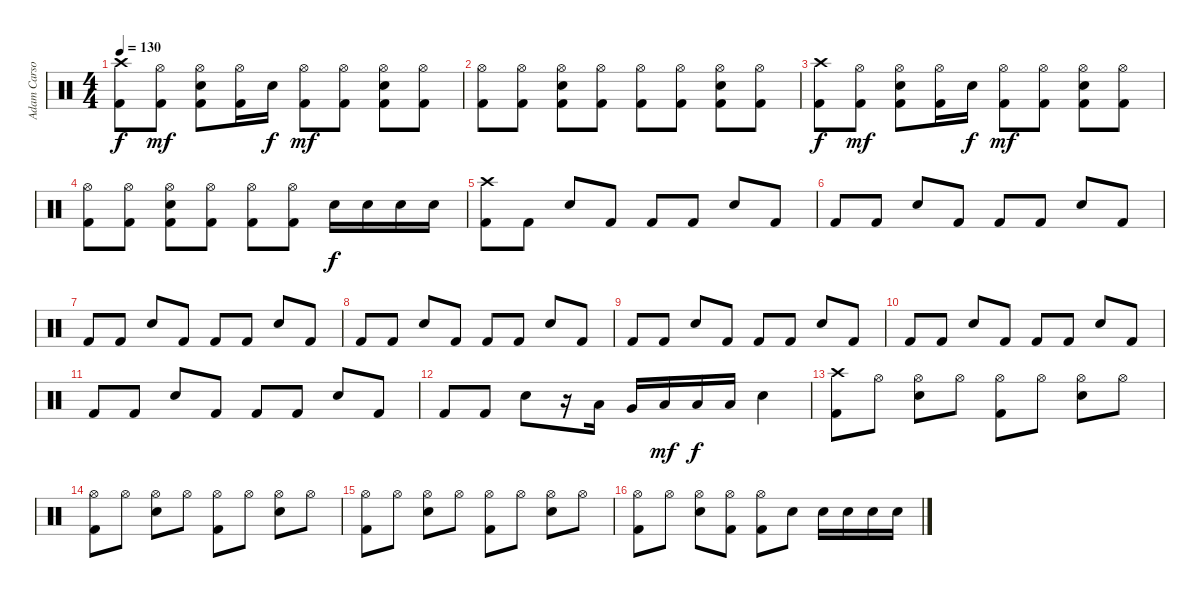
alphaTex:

\track ("Adam Carson" "Adam Carso") {instrument percussion}
\staff {score}
\articulation defaults
\ts (4 4)
\tempo 130
\clef neutral
\ks c
("Crash high (hit)" "Kick (hit) 2").8{dy f} ("Hi-Hat (open)" "Kick (hit) 2").8{dy mf} ("Hi-Hat (open)" "Electric Snare (hit)" "Kick (hit) 2").8 ("Hi-Hat (open)" "Kick (hit) 2").16 "Electric Snare (hit)".16{dy f} ("Hi-Hat (open)" "Kick (hit) 2").8{dy mf} ("Hi-Hat (open)" "Kick (hit) 2").8 ("Hi-Hat (open)" "Electric Snare (hit)" "Kick (hit) 2").8 ("Hi-Hat (open)" "Kick (hit) 2").8 |
("Hi-Hat (open)" "Kick (hit) 2").8 ("Hi-Hat (open)" "Kick (hit) 2").8 ("Hi-Hat (open)" "Electric Snare (hit)" "Kick (hit) 2").8 ("Hi-Hat (open)" "Kick (hit) 2").8 ("Hi-Hat (open)" "Kick (hit) 2").8 ("Hi-Hat (open)" "Kick (hit) 2").8 ("Hi-Hat (open)" "Electric Snare (hit)" "Kick (hit) 2").8 ("Hi-Hat (open)" "Kick (hit) 2").8 |
("Crash high (hit)" "Kick (hit) 2").8{dy f} ("Hi-Hat (open)" "Kick (hit) 2").8{dy mf} ("Hi-Hat (open)" "Electric Snare (hit)" "Kick (hit) 2").8 ("Hi-Hat (open)" "Kick (hit) 2").16 "Electric Snare (hit)".16{dy f} ("Hi-Hat (open)" "Kick (hit) 2").8{dy mf} ("Hi-Hat (open)" "Kick (hit) 2").8 ("Hi-Hat (open)" "Electric Snare (hit)" "Kick (hit) 2").8 ("Hi-Hat (open)" "Kick (hit) 2").8 |
("Hi-Hat (open)" "Kick (hit) 2").8 ("Hi-Hat (open)" "Kick (hit) 2").8 ("Hi-Hat (open)" "Electric Snare (hit)" "Kick (hit) 2").8 ("Hi-Hat (open)" "Kick (hit) 2").8 ("Hi-Hat (open)" "Kick (hit) 2").8 ("Hi-Hat (open)" "Kick (hit) 2").8 "Electric Snare (hit)".16{dy f} "Electric Snare (hit)".16 "Electric Snare (hit)".16 "Electric Snare (hit)".16 |
("Crash high (hit)" "Kick (hit) 2").8 "Kick (hit) 2".8 "Electric Snare (hit)".8 "Kick (hit) 2".8 "Kick (hit) 2".8 "Kick (hit) 2".8 "Electric Snare (hit)".8 "Kick (hit) 2".8 |
"Kick (hit) 2".8 "Kick (hit) 2".8 "Electric Snare (hit)".8 "Kick (hit) 2".8 "Kick (hit) 2".8 "Kick (hit) 2".8 "Electric Snare (hit)".8 "Kick (hit) 2".8 |
"Kick (hit) 2".8 "Kick (hit) 2".8 "Electric Snare (hit)".8 "Kick (hit) 2".8 "Kick (hit) 2".8 "Kick (hit) 2".8 "Electric Snare (hit)".8 "Kick (hit) 2".8 |
"Kick (hit) 2".8 "Kick (hit) 2".8 "Electric Snare (hit)".8 "Kick (hit) 2".8 "Kick (hit) 2".8 "Kick (hit) 2".8 "Electric Snare (hit)".8 "Kick (hit) 2".8 |
"Kick (hit) 2".8 "Kick (hit) 2".8 "Electric Snare (hit)".8 "Kick (hit) 2".8 "Kick (hit) 2".8 "Kick (hit) 2".8 "Electric Snare (hit)".8 "Kick (hit) 2".8 |
"Kick (hit) 2".8 "Kick (hit) 2".8 "Electric Snare (hit)".8 "Kick (hit) 2".8 "Kick (hit) 2".8 "Kick (hit) 2".8 "Electric Snare (hit)".8 "Kick (hit) 2".8 |
"Kick (hit) 2".8 "Kick (hit) 2".8 "Electric Snare (hit)".8 "Kick (hit) 2".8 "Kick (hit) 2".8 "Kick (hit) 2".8 "Electric Snare (hit)".8 "Kick (hit) 2".8 |
"Kick (hit) 2".8 "Kick (hit) 2".8 "Electric Snare (hit)".8 r.16 "Low Tom (hit)".16 "Very Low Tom (hit)".16 "Low Floor Tom (hit)".16{dy mf} "Low Floor Tom (hit)".16{dy f} "Low Floor Tom (hit)".16 "Electric Snare (hit)".4 |
("Crash high (hit)" "Kick (hit) 2").8 "Hi-Hat (open)".8 ("Hi-Hat (open)" "Electric Snare (hit)").8 "Hi-Hat (open)".8 ("Hi-Hat (open)" "Kick (hit) 2").8 "Hi-Hat (open)".8 ("Hi-Hat (open)" "Electric Snare (hit)").8 "Hi-Hat (open)".8 |
("Hi-Hat (open)" "Kick (hit) 2").8 "Hi-Hat (open)".8 ("Hi-Hat (open)" "Electric Snare (hit)").8 "Hi-Hat (open)".8 ("Hi-Hat (open)" "Kick (hit) 2").8 "Hi-Hat (open)".8 ("Hi-Hat (open)" "Electric Snare (hit)").8 "Hi-Hat (open)".8 |
("Hi-Hat (open)" "Kick (hit) 2").8 "Hi-Hat (open)".8 ("Hi-Hat (open)" "Electric Snare (hit)").8 "Hi-Hat (open)".8 ("Hi-Hat (open)" "Kick (hit) 2").8 "Hi-Hat (open)".8 ("Hi-Hat (open)" "Electric Snare (hit)").8 "Hi-Hat (open)".8 |
("Hi-Hat (open)" "Kick (hit) 2").8 "Hi-Hat (open)".8 ("Hi-Hat (open)" "Electric Snare (hit)").8 ("Hi-Hat (open)" "Kick (hit) 2").8 ("Hi-Hat (open)" "Kick (hit) 2").8 "Electric Snare (hit)".8 "Electric Snare (hit)".16 "Electric Snare (hit)".16 "Electric Snare (hit)".16 "Electric Snare (hit)".16
